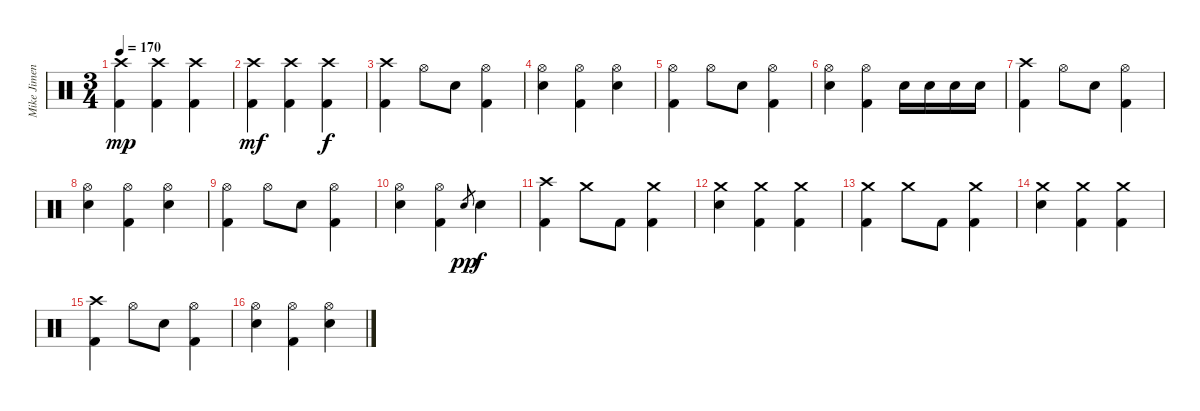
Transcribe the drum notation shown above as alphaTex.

\track ("Mike Jimenez" "Mike Jimen") {instrument percussion}
\staff {score}
\articulation defaults
\ts (3 4)
\tempo 170
\clef neutral
\ks c
("Crash high (hit)" "Kick (hit) 2").4{dy mp} ("Crash high (hit)" "Kick (hit) 2").4 ("Crash high (hit)" "Kick (hit) 2").4 |
("Crash high (hit)" "Kick (hit) 2").4{dy mf} ("Crash high (hit)" "Kick (hit) 2").4 ("Crash high (hit)" "Kick (hit) 2").4{dy f} |
("Crash high (hit)" "Kick (hit) 2").4 "Hi-Hat (open)".8 "Electric Snare (hit)".8 ("Hi-Hat (open)" "Kick (hit) 2").4 |
("Hi-Hat (open)" "Electric Snare (hit)").4 ("Hi-Hat (open)" "Kick (hit) 2").4 ("Hi-Hat (open)" "Electric Snare (hit)").4 |
("Hi-Hat (open)" "Kick (hit) 2").4 "Hi-Hat (open)".8 "Electric Snare (hit)".8 ("Hi-Hat (open)" "Kick (hit) 2").4 |
("Hi-Hat (open)" "Electric Snare (hit)").4 ("Hi-Hat (open)" "Kick (hit) 2").4 "Electric Snare (hit)".16 "Electric Snare (hit)".16 "Electric Snare (hit)".16 "Electric Snare (hit)".16 |
("Crash high (hit)" "Kick (hit) 2").4 "Hi-Hat (open)".8 "Electric Snare (hit)".8 ("Hi-Hat (open)" "Kick (hit) 2").4 |
("Hi-Hat (open)" "Electric Snare (hit)").4 ("Hi-Hat (open)" "Kick (hit) 2").4 ("Hi-Hat (open)" "Electric Snare (hit)").4 |
("Hi-Hat (open)" "Kick (hit) 2").4 "Hi-Hat (open)".8 "Electric Snare (hit)".8 ("Hi-Hat (open)" "Kick (hit) 2").4 |
("Hi-Hat (open)" "Electric Snare (hit)").4 ("Hi-Hat (open)" "Kick (hit) 2").4 "Electric Snare (hit)".8{gr dy pp} "Electric Snare (hit)".4{dy f} |
("Crash high (hit)" "Kick (hit) 2").4 "Crash medium (hit)".8 "Kick (hit) 2".8 ("Crash medium (hit)" "Kick (hit) 2").4 |
("Crash medium (hit)" "Electric Snare (hit)").4 ("Crash medium (hit)" "Kick (hit) 2").4 ("Crash medium (hit)" "Kick (hit) 2").4 |
("Crash medium (hit)" "Kick (hit) 2").4 "Crash medium (hit)".8 "Kick (hit) 2".8 ("Crash medium (hit)" "Kick (hit) 2").4 |
("Crash medium (hit)" "Electric Snare (hit)").4 ("Crash medium (hit)" "Kick (hit) 2").4 ("Crash medium (hit)" "Kick (hit) 2").4 |
("Crash high (hit)" "Kick (hit) 2").4 "Hi-Hat (open)".8 "Electric Snare (hit)".8 ("Hi-Hat (open)" "Kick (hit) 2").4 |
("Hi-Hat (open)" "Electric Snare (hit)").4 ("Hi-Hat (open)" "Kick (hit) 2").4 ("Hi-Hat (open)" "Electric Snare (hit)").4
